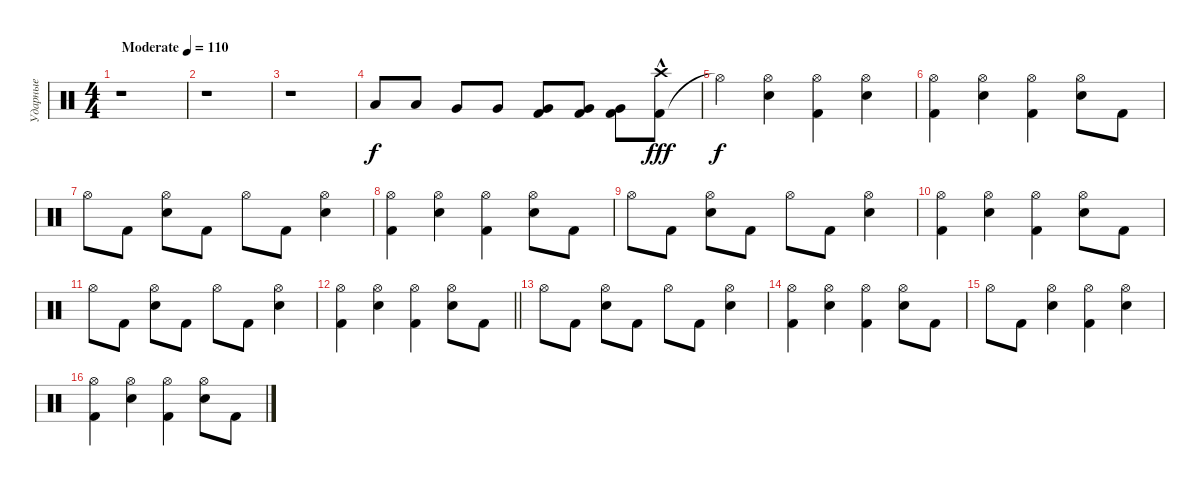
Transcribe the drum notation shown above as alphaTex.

\track ("Ударные" "Ударные") {instrument percussion}
\staff {score}
\articulation defaults
\ts (4 4)
\tempo (110 "Moderate")
\clef neutral
\ks c
r.1{dy f} |
r.1 |
r.1 |
"Low Tom (hit)".8 "Low Tom (hit)".8 "Very Low Tom (hit)".8 "Very Low Tom (hit)".8 ("Kick (hit) 2" "Very Low Tom (hit)").8 ("Kick (hit) 2" "Very Low Tom (hit)").8 ("Kick (hit) 2" "Very Low Tom (hit)").8 ("Kick (hit) 2" "Crash high (hit)"{hac}).8{dy fff} |
"Hi-Hat (open)"{t}.4{dy f} ("Snare (hit) 2" "Hi-Hat (open)").4 ("Kick (hit) 2" "Hi-Hat (open)").4 ("Snare (hit) 2" "Hi-Hat (open)").4 |
("Kick (hit) 2" "Hi-Hat (open)").4 ("Snare (hit) 2" "Hi-Hat (open)").4 ("Kick (hit) 2" "Hi-Hat (open)").4 ("Snare (hit) 2" "Hi-Hat (open)").8 "Kick (hit) 2".8 |
"Hi-Hat (open)".8 "Kick (hit) 2".8 ("Snare (hit) 2" "Hi-Hat (open)").8 "Kick (hit) 2".8 "Hi-Hat (open)".8 "Kick (hit) 2".8 ("Snare (hit) 2" "Hi-Hat (open)").4 |
("Kick (hit) 2" "Hi-Hat (open)").4 ("Snare (hit) 2" "Hi-Hat (open)").4 ("Kick (hit) 2" "Hi-Hat (open)").4 ("Snare (hit) 2" "Hi-Hat (open)").8 "Kick (hit) 2".8 |
"Hi-Hat (open)".8 "Kick (hit) 2".8 ("Snare (hit) 2" "Hi-Hat (open)").8 "Kick (hit) 2".8 "Hi-Hat (open)".8 "Kick (hit) 2".8 ("Snare (hit) 2" "Hi-Hat (open)").4 |
("Kick (hit) 2" "Hi-Hat (open)").4 ("Snare (hit) 2" "Hi-Hat (open)").4 ("Kick (hit) 2" "Hi-Hat (open)").4 ("Snare (hit) 2" "Hi-Hat (open)").8 "Kick (hit) 2".8 |
"Hi-Hat (open)".8 "Kick (hit) 2".8 ("Snare (hit) 2" "Hi-Hat (open)").8 "Kick (hit) 2".8 "Hi-Hat (open)".8 "Kick (hit) 2".8 ("Snare (hit) 2" "Hi-Hat (open)").4 |
\barLineRight lightlight
("Kick (hit) 2" "Hi-Hat (open)").4 ("Snare (hit) 2" "Hi-Hat (open)").4 ("Kick (hit) 2" "Hi-Hat (open)").4 ("Snare (hit) 2" "Hi-Hat (open)").8 "Kick (hit) 2".8 |
"Hi-Hat (open)".8 "Kick (hit) 2".8 ("Snare (hit) 2" "Hi-Hat (open)").8 "Kick (hit) 2".8 "Hi-Hat (open)".8 "Kick (hit) 2".8 ("Snare (hit) 2" "Hi-Hat (open)").4 |
("Kick (hit) 2" "Hi-Hat (open)").4 ("Snare (hit) 2" "Hi-Hat (open)").4 ("Kick (hit) 2" "Hi-Hat (open)").4 ("Snare (hit) 2" "Hi-Hat (open)").8 "Kick (hit) 2".8 |
"Hi-Hat (open)".8 "Kick (hit) 2".8 ("Snare (hit) 2" "Hi-Hat (open)").4 ("Kick (hit) 2" "Hi-Hat (open)").4 ("Snare (hit) 2" "Hi-Hat (open)").4 |
("Kick (hit) 2" "Hi-Hat (open)").4 ("Snare (hit) 2" "Hi-Hat (open)").4 ("Kick (hit) 2" "Hi-Hat (open)").4 ("Snare (hit) 2" "Hi-Hat (open)").8 "Kick (hit) 2".8
